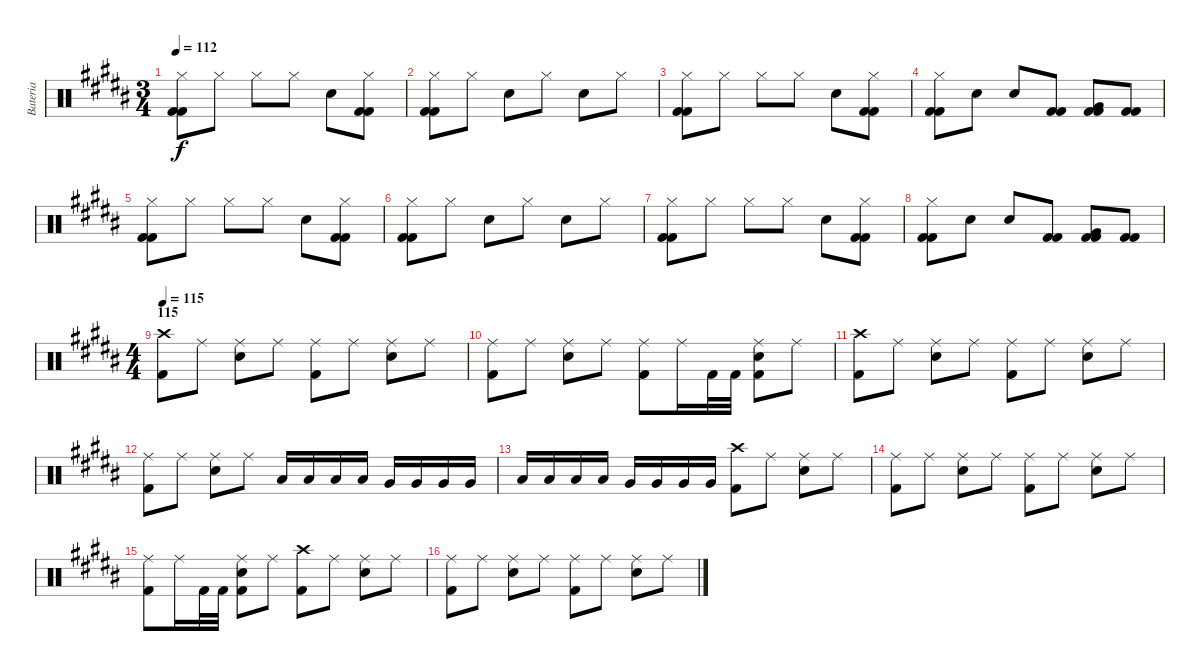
\track ("Bateria" "Bateria") {instrument percussion}
\staff {score}
\articulation defaults
\ts (3 4)
\tempo 112
\clef neutral
\ks b
("Hi-Hat (closed)" "Kick (hit) 2" "Kick (hit) 2").8{dy f} "Hi-Hat (closed)".8 "Hi-Hat (closed)".8 "Hi-Hat (closed)".8 "Snare (hit) 2".8 ("Hi-Hat (closed)" "Kick (hit) 2" "Kick (hit) 2").8 |
("Hi-Hat (closed)" "Kick (hit) 2" "Kick (hit) 2").8 "Hi-Hat (closed)".8 "Snare (hit) 2".8 "Hi-Hat (closed)".8 "Snare (hit) 2".8 "Hi-Hat (closed)".8 |
("Hi-Hat (closed)" "Kick (hit) 2" "Kick (hit) 2").8 "Hi-Hat (closed)".8 "Hi-Hat (closed)".8 "Hi-Hat (closed)".8 "Snare (hit) 2".8 ("Hi-Hat (closed)" "Kick (hit) 2" "Kick (hit) 2").8 |
("Hi-Hat (closed)" "Kick (hit) 2" "Kick (hit) 2").8 "Snare (hit) 2".8 "Snare (hit) 2".8 ("Kick (hit) 2" "Kick (hit) 2").8 ("Very Low Tom (hit)" "Kick (hit) 2" "Kick (hit) 2").8 ("Kick (hit) 2" "Kick (hit) 2").8 |
("Hi-Hat (closed)" "Kick (hit) 2" "Kick (hit) 2").8 "Hi-Hat (closed)".8 "Hi-Hat (closed)".8 "Hi-Hat (closed)".8 "Snare (hit) 2".8 ("Hi-Hat (closed)" "Kick (hit) 2" "Kick (hit) 2").8 |
("Hi-Hat (closed)" "Kick (hit) 2" "Kick (hit) 2").8 "Hi-Hat (closed)".8 "Snare (hit) 2".8 "Hi-Hat (closed)".8 "Snare (hit) 2".8 "Hi-Hat (closed)".8 |
("Hi-Hat (closed)" "Kick (hit) 2" "Kick (hit) 2").8 "Hi-Hat (closed)".8 "Hi-Hat (closed)".8 "Hi-Hat (closed)".8 "Snare (hit) 2".8 ("Hi-Hat (closed)" "Kick (hit) 2" "Kick (hit) 2").8 |
("Hi-Hat (closed)" "Kick (hit) 2" "Kick (hit) 2").8 "Snare (hit) 2".8 "Snare (hit) 2".8 ("Kick (hit) 2" "Kick (hit) 2").8 ("Very Low Tom (hit)" "Kick (hit) 2" "Kick (hit) 2").8 ("Kick (hit) 2" "Kick (hit) 2").8 |
\ts (4 4)
\section ("" "115")
\tempo 115
("Crash high (hit)" "Kick (hit) 2").8 "Ride (middle)".8 ("Ride (middle)" "Snare (hit) 2").8 "Ride (middle)".8 ("Ride (middle)" "Kick (hit) 2").8 "Ride (middle)".8 ("Ride (middle)" "Snare (hit) 2").8 "Ride (middle)".8 |
("Ride (middle)" "Kick (hit) 2").8 "Ride (middle)".8 ("Ride (middle)" "Snare (hit) 2").8 "Ride (middle)".8 ("Ride (middle)" "Kick (hit) 2").8 "Ride (middle)".16 "Kick (hit) 2".32 "Kick (hit) 2".32 ("Ride (middle)" "Snare (hit) 2" "Kick (hit) 2").8 "Ride (middle)".8 |
("Crash high (hit)" "Kick (hit) 2").8 "Ride (middle)".8 ("Ride (middle)" "Snare (hit) 2").8 "Ride (middle)".8 ("Ride (middle)" "Kick (hit) 2").8 "Ride (middle)".8 ("Ride (middle)" "Snare (hit) 2").8 "Ride (middle)".8 |
("Ride (middle)" "Kick (hit) 2").8 "Ride (middle)".8 ("Ride (middle)" "Snare (hit) 2").8 "Ride (middle)".8 "Low Tom (hit)".16 "Low Tom (hit)".16 "Low Tom (hit)".16 "Low Tom (hit)".16 "Very Low Tom (hit)".16 "Very Low Tom (hit)".16 "Very Low Tom (hit)".16 "Very Low Tom (hit)".16 |
"Low Tom (hit)".16 "Low Tom (hit)".16 "Low Tom (hit)".16 "Low Tom (hit)".16 "Very Low Tom (hit)".16 "Very Low Tom (hit)".16 "Very Low Tom (hit)".16 "Very Low Tom (hit)".16 ("Crash high (hit)" "Kick (hit) 2").8 "Ride (middle)".8 ("Ride (middle)" "Snare (hit) 2").8 "Ride (middle)".8 |
("Ride (middle)" "Kick (hit) 2").8 "Ride (middle)".8 ("Ride (middle)" "Snare (hit) 2").8 "Ride (middle)".8 ("Ride (middle)" "Kick (hit) 2").8 "Ride (middle)".8 ("Ride (middle)" "Snare (hit) 2").8 "Ride (middle)".8 |
("Ride (middle)" "Kick (hit) 2").8 "Ride (middle)".16 "Kick (hit) 2".32 "Kick (hit) 2".32 ("Ride (middle)" "Snare (hit) 2" "Kick (hit) 2").8 "Ride (middle)".8 ("Crash high (hit)" "Kick (hit) 2").8 "Ride (middle)".8 ("Ride (middle)" "Snare (hit) 2").8 "Ride (middle)".8 |
("Ride (middle)" "Kick (hit) 2").8 "Ride (middle)".8 ("Ride (middle)" "Snare (hit) 2").8 "Ride (middle)".8 ("Ride (middle)" "Kick (hit) 2").8 "Ride (middle)".8 ("Ride (middle)" "Snare (hit) 2").8 "Ride (middle)".8
